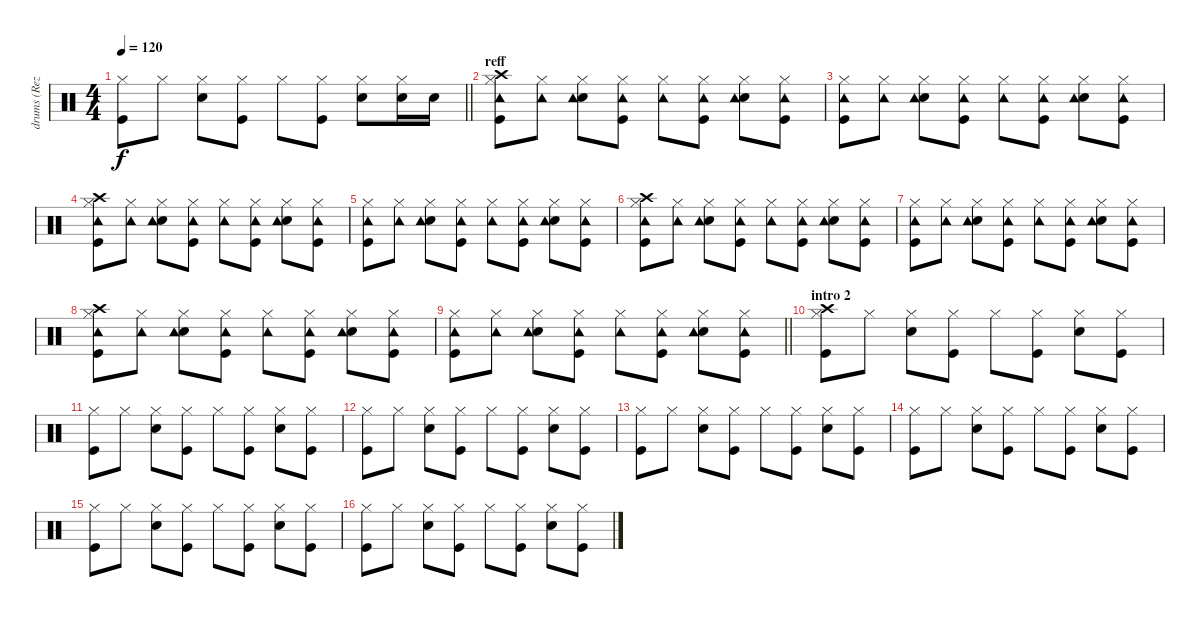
\track ("drums (Reza)" "drums (Rez") {instrument percussion}
\staff {score}
\articulation defaults
\ts (4 4)
\tempo 120
\clef neutral
\barLineRight lightlight
\ks c
("Hi-Hat (closed)" "Kick (hit)").8{dy f} "Hi-Hat (closed)".8 ("Hi-Hat (closed)" "Snare (hit) 2").8 ("Hi-Hat (closed)" "Kick (hit)").8 "Hi-Hat (closed)".8 ("Hi-Hat (closed)" "Kick (hit)").8 ("Hi-Hat (closed)" "Snare (hit) 2").8 ("Hi-Hat (closed)" "Snare (hit) 2").16 "Snare (hit) 2".16 |
\section ("" "reff")
("Hi-Hat (closed)" "Kick (hit)" "Crash high (hit)" "Tambourine (hit)").8 ("Hi-Hat (closed)" "Tambourine (hit)").8 ("Hi-Hat (closed)" "Snare (hit) 2" "Tambourine (hit)").8 ("Hi-Hat (closed)" "Kick (hit)" "Tambourine (hit)").8 ("Hi-Hat (closed)" "Tambourine (hit)").8 ("Hi-Hat (closed)" "Kick (hit)" "Tambourine (hit)").8 ("Hi-Hat (closed)" "Snare (hit) 2" "Tambourine (hit)").8 ("Hi-Hat (closed)" "Kick (hit)" "Tambourine (hit)").8 |
("Hi-Hat (closed)" "Kick (hit)" "Tambourine (hit)").8 ("Hi-Hat (closed)" "Tambourine (hit)").8 ("Hi-Hat (closed)" "Snare (hit) 2" "Tambourine (hit)").8 ("Hi-Hat (closed)" "Kick (hit)" "Tambourine (hit)").8 ("Hi-Hat (closed)" "Tambourine (hit)").8 ("Hi-Hat (closed)" "Kick (hit)" "Tambourine (hit)").8 ("Hi-Hat (closed)" "Snare (hit) 2" "Tambourine (hit)").8 ("Hi-Hat (closed)" "Kick (hit)" "Tambourine (hit)").8 |
("Hi-Hat (closed)" "Kick (hit)" "Crash high (hit)" "Tambourine (hit)").8 ("Hi-Hat (closed)" "Tambourine (hit)").8 ("Hi-Hat (closed)" "Snare (hit) 2" "Tambourine (hit)").8 ("Hi-Hat (closed)" "Kick (hit)" "Tambourine (hit)").8 ("Hi-Hat (closed)" "Tambourine (hit)").8 ("Hi-Hat (closed)" "Kick (hit)" "Tambourine (hit)").8 ("Hi-Hat (closed)" "Snare (hit) 2" "Tambourine (hit)").8 ("Hi-Hat (closed)" "Kick (hit)" "Tambourine (hit)").8 |
("Hi-Hat (closed)" "Kick (hit)" "Tambourine (hit)").8 ("Hi-Hat (closed)" "Tambourine (hit)").8 ("Hi-Hat (closed)" "Snare (hit) 2" "Tambourine (hit)").8 ("Hi-Hat (closed)" "Kick (hit)" "Tambourine (hit)").8 ("Hi-Hat (closed)" "Tambourine (hit)").8 ("Hi-Hat (closed)" "Kick (hit)" "Tambourine (hit)").8 ("Hi-Hat (closed)" "Snare (hit) 2" "Tambourine (hit)").8 ("Hi-Hat (closed)" "Kick (hit)" "Tambourine (hit)").8 |
("Hi-Hat (closed)" "Kick (hit)" "Crash high (hit)" "Tambourine (hit)").8 ("Hi-Hat (closed)" "Tambourine (hit)").8 ("Hi-Hat (closed)" "Snare (hit) 2" "Tambourine (hit)").8 ("Hi-Hat (closed)" "Kick (hit)" "Tambourine (hit)").8 ("Hi-Hat (closed)" "Tambourine (hit)").8 ("Hi-Hat (closed)" "Kick (hit)" "Tambourine (hit)").8 ("Hi-Hat (closed)" "Snare (hit) 2" "Tambourine (hit)").8 ("Hi-Hat (closed)" "Kick (hit)" "Tambourine (hit)").8 |
("Hi-Hat (closed)" "Kick (hit)" "Tambourine (hit)").8 ("Hi-Hat (closed)" "Tambourine (hit)").8 ("Hi-Hat (closed)" "Snare (hit) 2" "Tambourine (hit)").8 ("Hi-Hat (closed)" "Kick (hit)" "Tambourine (hit)").8 ("Hi-Hat (closed)" "Tambourine (hit)").8 ("Hi-Hat (closed)" "Kick (hit)" "Tambourine (hit)").8 ("Hi-Hat (closed)" "Snare (hit) 2" "Tambourine (hit)").8 ("Hi-Hat (closed)" "Kick (hit)" "Tambourine (hit)").8 |
("Hi-Hat (closed)" "Kick (hit)" "Crash high (hit)" "Tambourine (hit)").8 ("Hi-Hat (closed)" "Tambourine (hit)").8 ("Hi-Hat (closed)" "Snare (hit) 2" "Tambourine (hit)").8 ("Hi-Hat (closed)" "Kick (hit)" "Tambourine (hit)").8 ("Hi-Hat (closed)" "Tambourine (hit)").8 ("Hi-Hat (closed)" "Kick (hit)" "Tambourine (hit)").8 ("Hi-Hat (closed)" "Snare (hit) 2" "Tambourine (hit)").8 ("Hi-Hat (closed)" "Kick (hit)" "Tambourine (hit)").8 |
\barLineRight lightlight
("Hi-Hat (closed)" "Kick (hit)" "Tambourine (hit)").8 ("Hi-Hat (closed)" "Tambourine (hit)").8 ("Hi-Hat (closed)" "Snare (hit) 2" "Tambourine (hit)").8 ("Hi-Hat (closed)" "Kick (hit)" "Tambourine (hit)").8 ("Hi-Hat (closed)" "Tambourine (hit)").8 ("Hi-Hat (closed)" "Kick (hit)" "Tambourine (hit)").8 ("Hi-Hat (closed)" "Snare (hit) 2" "Tambourine (hit)").8 ("Hi-Hat (closed)" "Kick (hit)" "Tambourine (hit)").8 |
\section ("" "intro 2")
("Hi-Hat (closed)" "Kick (hit)" "Crash high (hit)").8 "Hi-Hat (closed)".8 ("Hi-Hat (closed)" "Snare (hit) 2").8 ("Hi-Hat (closed)" "Kick (hit)").8 "Hi-Hat (closed)".8 ("Hi-Hat (closed)" "Kick (hit)").8 ("Hi-Hat (closed)" "Snare (hit) 2").8 ("Hi-Hat (closed)" "Kick (hit)").8 |
("Hi-Hat (closed)" "Kick (hit)").8 "Hi-Hat (closed)".8 ("Hi-Hat (closed)" "Snare (hit) 2").8 ("Hi-Hat (closed)" "Kick (hit)").8 "Hi-Hat (closed)".8 ("Hi-Hat (closed)" "Kick (hit)").8 ("Hi-Hat (closed)" "Snare (hit) 2").8 ("Hi-Hat (closed)" "Kick (hit)").8 |
("Hi-Hat (closed)" "Kick (hit)").8 "Hi-Hat (closed)".8 ("Hi-Hat (closed)" "Snare (hit) 2").8 ("Hi-Hat (closed)" "Kick (hit)").8 "Hi-Hat (closed)".8 ("Hi-Hat (closed)" "Kick (hit)").8 ("Hi-Hat (closed)" "Snare (hit) 2").8 ("Hi-Hat (closed)" "Kick (hit)").8 |
("Hi-Hat (closed)" "Kick (hit)").8 "Hi-Hat (closed)".8 ("Hi-Hat (closed)" "Snare (hit) 2").8 ("Hi-Hat (closed)" "Kick (hit)").8 "Hi-Hat (closed)".8 ("Hi-Hat (closed)" "Kick (hit)").8 ("Hi-Hat (closed)" "Snare (hit) 2").8 ("Hi-Hat (closed)" "Kick (hit)").8 |
("Hi-Hat (closed)" "Kick (hit)").8 "Hi-Hat (closed)".8 ("Hi-Hat (closed)" "Snare (hit) 2").8 ("Hi-Hat (closed)" "Kick (hit)").8 "Hi-Hat (closed)".8 ("Hi-Hat (closed)" "Kick (hit)").8 ("Hi-Hat (closed)" "Snare (hit) 2").8 ("Hi-Hat (closed)" "Kick (hit)").8 |
("Hi-Hat (closed)" "Kick (hit)").8 "Hi-Hat (closed)".8 ("Hi-Hat (closed)" "Snare (hit) 2").8 ("Hi-Hat (closed)" "Kick (hit)").8 "Hi-Hat (closed)".8 ("Hi-Hat (closed)" "Kick (hit)").8 ("Hi-Hat (closed)" "Snare (hit) 2").8 ("Hi-Hat (closed)" "Kick (hit)").8 |
("Hi-Hat (closed)" "Kick (hit)").8 "Hi-Hat (closed)".8 ("Hi-Hat (closed)" "Snare (hit) 2").8 ("Hi-Hat (closed)" "Kick (hit)").8 "Hi-Hat (closed)".8 ("Hi-Hat (closed)" "Kick (hit)").8 ("Hi-Hat (closed)" "Snare (hit) 2").8 ("Hi-Hat (closed)" "Kick (hit)").8
